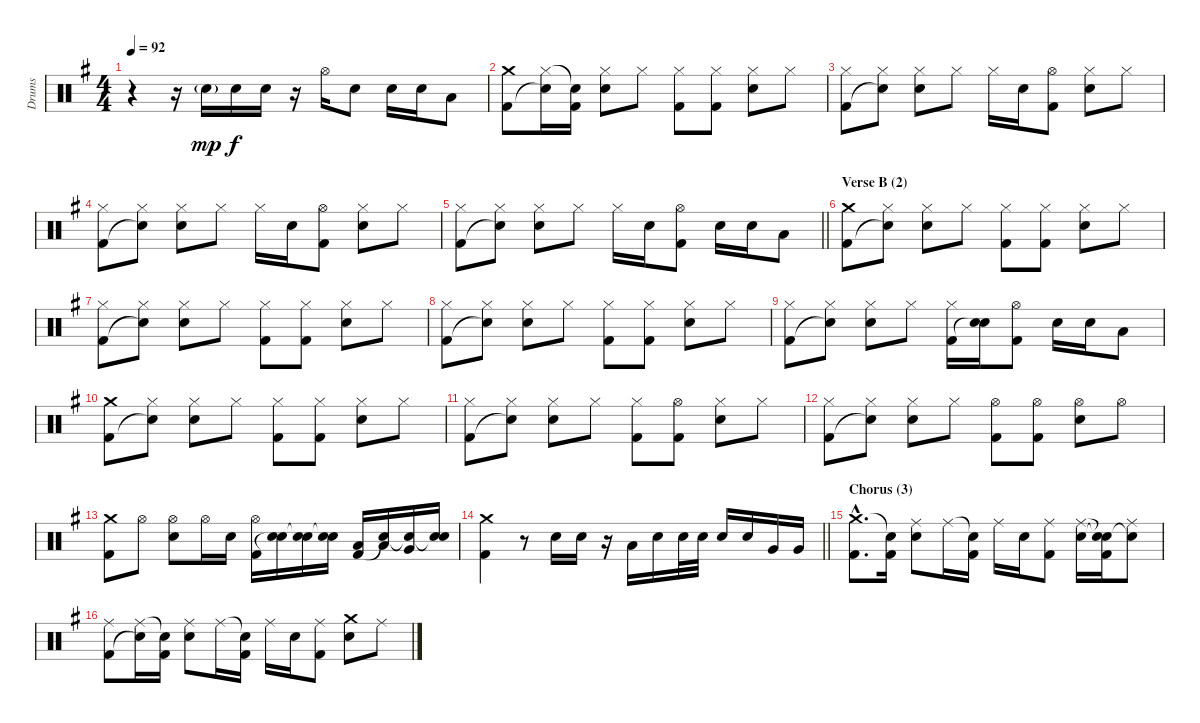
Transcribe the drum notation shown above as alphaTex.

\track ("Drums" "Drums") {instrument percussion}
\staff {score}
\articulation defaults
\ts (4 4)
\tempo 92
\clef neutral
\ks g
r.4{dy f} r.16 "Electric Snare (hit)"{g}.16{dy mp} "Electric Snare (hit)".16{dy f} "Electric Snare (hit)".16 r.16 "Hi-Hat (open)".16 "Electric Snare (hit)".8 "Electric Snare (hit)".16 "Electric Snare (hit)".16 "Low Tom (hit)".8 |
("Crash medium (hit)" "Kick (hit) 2").8 ("Hi-Hat (closed)" "Snare (hit)"{t}).16 ("Snare (hit)"{t} "Kick (hit) 2").16 ("Hi-Hat (closed)" "Electric Snare (hit)").8 "Hi-Hat (closed)".8 ("Hi-Hat (closed)" "Kick (hit) 2").8 ("Hi-Hat (closed)" "Kick (hit) 2").8 ("Hi-Hat (closed)" "Electric Snare (hit)").8 "Hi-Hat (closed)".8 |
("Hi-Hat (closed)" "Kick (hit) 2").8 ("Hi-Hat (closed)" "Snare (hit)"{t}).8 ("Hi-Hat (closed)" "Electric Snare (hit)").8 "Hi-Hat (closed)".8 "Hi-Hat (closed)".16 "Electric Snare (hit)".16 ("Hi-Hat (open)" "Kick (hit) 2").8 ("Hi-Hat (closed)" "Electric Snare (hit)").8 "Hi-Hat (closed)".8 |
("Hi-Hat (closed)" "Kick (hit) 2").8 ("Hi-Hat (closed)" "Snare (hit)"{t}).8 ("Hi-Hat (closed)" "Electric Snare (hit)").8 "Hi-Hat (closed)".8 "Hi-Hat (closed)".16 "Electric Snare (hit)".16 ("Hi-Hat (open)" "Kick (hit) 2").8 ("Hi-Hat (closed)" "Electric Snare (hit)").8 "Hi-Hat (closed)".8 |
\barLineRight lightlight
("Hi-Hat (closed)" "Kick (hit) 2").8 ("Hi-Hat (closed)" "Snare (hit)"{t}).8 ("Hi-Hat (closed)" "Electric Snare (hit)").8 "Hi-Hat (closed)".8 "Hi-Hat (closed)".16 "Electric Snare (hit)".16 ("Hi-Hat (open)" "Kick (hit) 2").8 "Electric Snare (hit)".16 "Electric Snare (hit)".16 "Low Tom (hit)".8 |
\section ("" "Verse B (2)")
("Crash medium (hit)" "Kick (hit) 2").8 ("Hi-Hat (closed)" "Snare (hit)"{t}).8 ("Hi-Hat (closed)" "Electric Snare (hit)").8 "Hi-Hat (closed)".8 ("Hi-Hat (closed)" "Kick (hit) 2").8 ("Hi-Hat (closed)" "Kick (hit) 2").8 ("Hi-Hat (closed)" "Electric Snare (hit)").8 "Hi-Hat (closed)".8 |
("Hi-Hat (closed)" "Kick (hit) 2").8 ("Hi-Hat (closed)" "Snare (hit)"{t}).8 ("Hi-Hat (closed)" "Electric Snare (hit)").8 "Hi-Hat (closed)".8 ("Hi-Hat (closed)" "Kick (hit) 2").8 ("Hi-Hat (closed)" "Kick (hit) 2").8 ("Hi-Hat (closed)" "Electric Snare (hit)").8 "Hi-Hat (closed)".8 |
("Hi-Hat (closed)" "Kick (hit) 2").8 ("Hi-Hat (closed)" "Snare (hit)"{t}).8 ("Hi-Hat (closed)" "Electric Snare (hit)").8 "Hi-Hat (closed)".8 ("Hi-Hat (closed)" "Kick (hit) 2").8 ("Hi-Hat (closed)" "Kick (hit) 2").8 ("Hi-Hat (closed)" "Electric Snare (hit)").8 "Hi-Hat (closed)".8 |
("Hi-Hat (closed)" "Kick (hit) 2").8 ("Hi-Hat (closed)" "Snare (hit)"{t}).8 ("Hi-Hat (closed)" "Electric Snare (hit)").8 "Hi-Hat (closed)".8 ("Hi-Hat (closed)" "Kick (hit) 2").16 ("Electric Snare (hit)" "Snare (hit)"{t}).16 ("Hi-Hat (open)" "Kick (hit) 2").8 "Electric Snare (hit)".16 "Electric Snare (hit)".16 "Low Tom (hit)".8 |
("Crash medium (hit)" "Kick (hit) 2").8 ("Hi-Hat (closed)" "Snare (hit)"{t}).8 ("Hi-Hat (closed)" "Electric Snare (hit)").8 "Hi-Hat (closed)".8 ("Hi-Hat (closed)" "Kick (hit) 2").8 ("Hi-Hat (closed)" "Kick (hit) 2").8 ("Hi-Hat (closed)" "Electric Snare (hit)").8 "Hi-Hat (closed)".8 |
("Hi-Hat (closed)" "Kick (hit) 2").8 ("Hi-Hat (closed)" "Snare (hit)"{t}).8 ("Hi-Hat (closed)" "Electric Snare (hit)").8 "Hi-Hat (closed)".8 ("Hi-Hat (closed)" "Kick (hit) 2").8 ("Hi-Hat (open)" "Kick (hit) 2").8 ("Hi-Hat (closed)" "Electric Snare (hit)").8 "Hi-Hat (closed)".8 |
("Hi-Hat (closed)" "Kick (hit) 2").8 ("Hi-Hat (closed)" "Snare (hit)"{t}).8 ("Hi-Hat (closed)" "Electric Snare (hit)").8 "Hi-Hat (closed)".8 ("Hi-Hat (open)" "Kick (hit) 2").8 ("Hi-Hat (open)" "Kick (hit) 2").8 ("Hi-Hat (open)" "Electric Snare (hit)").8 "Hi-Hat (open)".8 |
("Crash medium (hit)" "Kick (hit) 2").8 "Hi-Hat (open)".8 ("Hi-Hat (open)" "Electric Snare (hit)").8 "Hi-Hat (open)".16 "Electric Snare (hit)".16 ("Hi-Hat (open)" "Kick (hit) 2").16 ("Electric Snare (hit)" "Snare (hit)"{t}).16 ("Electric Snare (hit)" "Snare (hit)"{t}).16 ("Electric Snare (hit)" "Snare (hit)"{t}).16 ("Low Tom (hit)" "Kick (hit) 2").16 ("Low Tom (hit)" "Snare (hit)"{t}).16 ("Very Low Tom (hit)" "Snare (hit)"{t}).16 ("Electric Snare (hit)" "Snare (hit)"{t}).16 |
\barLineRight lightlight
("Crash medium (hit)" "Kick (hit) 2").4 r.8 "Electric Snare (hit)".16 "Electric Snare (hit)".16 r.16 "Low Tom (hit)".16 "Electric Snare (hit)".16 "Electric Snare (hit)".32 "Electric Snare (hit)".32 "Electric Snare (hit)".16 "Electric Snare (hit)".16 "Very Low Tom (hit)".16 "Very Low Tom (hit)".16 |
\section ("" "Chorus (3)")
("Crash medium (hit)"{hac} "Kick (hit) 2"{hac}).8{d} ("Snare (hit)"{t} "Kick (hit) 2").16 ("Ride (middle)" "Electric Snare (hit)").8 "Ride (middle)".16 ("Snare (hit)"{t} "Kick (hit) 2").16 "Ride (middle)".16 "Electric Snare (hit)".16 ("Ride (middle)" "Kick (hit) 2").8 ("Ride (middle)" "Electric Snare (hit)").16 ("Snare (hit)"{t} "Snare (hit)"{t} "Kick (hit) 2").16 ("Ride (middle)" "Snare (hit)"{t}).8 |
("Ride (middle)" "Kick (hit) 2").8 ("Ride (middle)" "Snare (hit)"{t}).16 ("Snare (hit)"{t} "Kick (hit) 2").16 ("Ride (middle)" "Electric Snare (hit)").8 "Ride (middle)".16 ("Snare (hit)"{t} "Kick (hit) 2").16 "Ride (middle)".16 "Electric Snare (hit)".16 ("Ride (middle)" "Kick (hit) 2").8 ("Crash medium (hit)" "Electric Snare (hit)").8 "Ride (middle)".8
